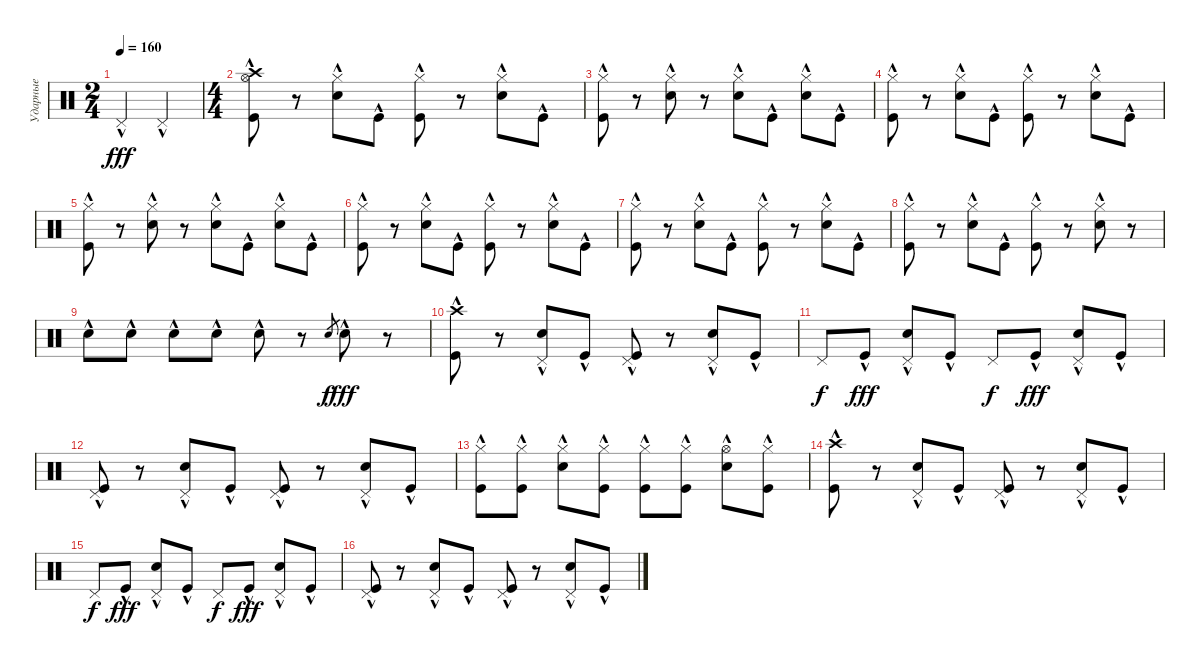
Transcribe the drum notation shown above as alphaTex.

\track ("Ударные" "Ударные") {instrument percussion}
\staff {score}
\articulation defaults
\ts (2 4)
\tempo 160
\clef neutral
\ks c "Pedal Hi-Hat (hit)"{hac}.4{dy fff} "Pedal Hi-Hat (hit)"{hac}.4
|
\ts (4 4)
("Hi-Hat (open)"{hac} "Crash high (hit)"{hac} "Kick (hit)"{hac}).8 r.8 ("Hi-Hat (closed)"{hac} "Snare (hit) 2"{hac}).8 "Kick (hit)"{hac}.8 ("Hi-Hat (closed)"{hac} "Kick (hit)"{hac}).8 r.8 ("Hi-Hat (closed)"{hac} "Snare (hit) 2"{hac}).8 "Kick (hit)"{hac}.8 |
("Hi-Hat (closed)"{hac} "Kick (hit)"{hac}).8 r.8 ("Hi-Hat (closed)"{hac} "Snare (hit) 2"{hac}).8 r.8 ("Hi-Hat (closed)"{hac} "Snare (hit) 2"{hac}).8 "Kick (hit)"{hac}.8 ("Hi-Hat (closed)"{hac} "Snare (hit) 2"{hac}).8 "Kick (hit)"{hac}.8 |
("Hi-Hat (closed)"{hac} "Kick (hit)"{hac}).8 r.8 ("Hi-Hat (closed)"{hac} "Snare (hit) 2"{hac}).8 "Kick (hit)"{hac}.8 ("Hi-Hat (closed)"{hac} "Kick (hit)"{hac}).8 r.8 ("Hi-Hat (closed)"{hac} "Snare (hit) 2"{hac}).8 "Kick (hit)"{hac}.8 |
("Hi-Hat (closed)"{hac} "Kick (hit)"{hac}).8 r.8 ("Hi-Hat (closed)"{hac} "Snare (hit) 2"{hac}).8 r.8 ("Hi-Hat (closed)"{hac} "Snare (hit) 2"{hac}).8 "Kick (hit)"{hac}.8 ("Hi-Hat (closed)"{hac} "Snare (hit) 2"{hac}).8 "Kick (hit)"{hac}.8 |
("Hi-Hat (closed)"{hac} "Kick (hit)"{hac}).8 r.8 ("Hi-Hat (closed)"{hac} "Snare (hit) 2"{hac}).8 "Kick (hit)"{hac}.8 ("Hi-Hat (closed)"{hac} "Kick (hit)"{hac}).8 r.8 ("Hi-Hat (closed)"{hac} "Snare (hit) 2"{hac}).8 "Kick (hit)"{hac}.8 |
("Hi-Hat (closed)"{hac} "Kick (hit)"{hac}).8 r.8 ("Hi-Hat (closed)"{hac} "Snare (hit) 2"{hac}).8 "Kick (hit)"{hac}.8 ("Hi-Hat (closed)"{hac} "Kick (hit)"{hac}).8 r.8 ("Hi-Hat (closed)"{hac} "Snare (hit) 2"{hac}).8 "Kick (hit)"{hac}.8 |
("Hi-Hat (closed)"{hac} "Kick (hit)"{hac}).8 r.8 ("Hi-Hat (closed)"{hac} "Snare (hit) 2"{hac}).8 "Kick (hit)"{hac}.8 ("Hi-Hat (closed)"{hac} "Kick (hit)"{hac}).8 r.8 ("Hi-Hat (closed)"{hac} "Snare (hit) 2"{hac}).8 r.8 |
"Snare (hit) 2"{hac}.8 "Snare (hit) 2"{hac}.8 "Snare (hit) 2"{hac}.8 "Snare (hit) 2"{hac}.8 "Snare (hit) 2"{hac}.8 r.8 "Snare (hit) 2".8{gr dy f} "Snare (hit) 2"{hac}.8{dy fff} r.8 |
("Crash high (hit)"{hac} "Kick (hit)"{hac}).8 r.8 ("Pedal Hi-Hat (hit)" "Snare (hit) 2"{hac}).8 "Kick (hit)"{hac}.8 ("Pedal Hi-Hat (hit)" "Kick (hit)"{hac}).8 r.8 ("Pedal Hi-Hat (hit)" "Snare (hit) 2"{hac}).8 "Kick (hit)"{hac}.8 |
"Pedal Hi-Hat (hit)".8{dy f} "Kick (hit)"{hac}.8{dy fff} ("Pedal Hi-Hat (hit)" "Snare (hit) 2"{hac}).8 "Kick (hit)"{hac}.8 "Pedal Hi-Hat (hit)".8{dy f} "Kick (hit)"{hac}.8{dy fff} ("Pedal Hi-Hat (hit)" "Snare (hit) 2"{hac}).8 "Kick (hit)"{hac}.8 |
("Pedal Hi-Hat (hit)" "Kick (hit)"{hac}).8 r.8 ("Pedal Hi-Hat (hit)" "Snare (hit) 2"{hac}).8 "Kick (hit)"{hac}.8 ("Pedal Hi-Hat (hit)" "Kick (hit)"{hac}).8 r.8 ("Pedal Hi-Hat (hit)" "Snare (hit) 2"{hac}).8 "Kick (hit)"{hac}.8 |
("Hi-Hat (closed)"{hac} "Kick (hit)"{hac}).8 ("Hi-Hat (closed)"{hac} "Kick (hit)"{hac}).8 ("Hi-Hat (closed)"{hac} "Snare (hit) 2"{hac}).8 ("Hi-Hat (closed)"{hac} "Kick (hit)"{hac}).8 ("Hi-Hat (closed)"{hac} "Kick (hit)"{hac}).8 ("Hi-Hat (closed)"{hac} "Kick (hit)"{hac}).8 ("Hi-Hat (open)"{hac} "Snare (hit) 2"{hac}).8 ("Hi-Hat (closed)"{hac} "Kick (hit)"{hac}).8 |
("Crash high (hit)"{hac} "Kick (hit)"{hac}).8 r.8 ("Pedal Hi-Hat (hit)" "Snare (hit) 2"{hac}).8 "Kick (hit)"{hac}.8 ("Pedal Hi-Hat (hit)" "Kick (hit)"{hac}).8 r.8 ("Pedal Hi-Hat (hit)" "Snare (hit) 2"{hac}).8 "Kick (hit)"{hac}.8 |
"Pedal Hi-Hat (hit)".8{dy f} "Kick (hit)"{hac}.8{dy fff} ("Pedal Hi-Hat (hit)" "Snare (hit) 2"{hac}).8 "Kick (hit)"{hac}.8 "Pedal Hi-Hat (hit)".8{dy f} "Kick (hit)"{hac}.8{dy fff} ("Pedal Hi-Hat (hit)" "Snare (hit) 2"{hac}).8 "Kick (hit)"{hac}.8 |
("Pedal Hi-Hat (hit)" "Kick (hit)"{hac}).8 r.8 ("Pedal Hi-Hat (hit)" "Snare (hit) 2"{hac}).8 "Kick (hit)"{hac}.8 ("Pedal Hi-Hat (hit)" "Kick (hit)"{hac}).8 r.8 ("Pedal Hi-Hat (hit)" "Snare (hit) 2"{hac}).8 "Kick (hit)"{hac}.8
